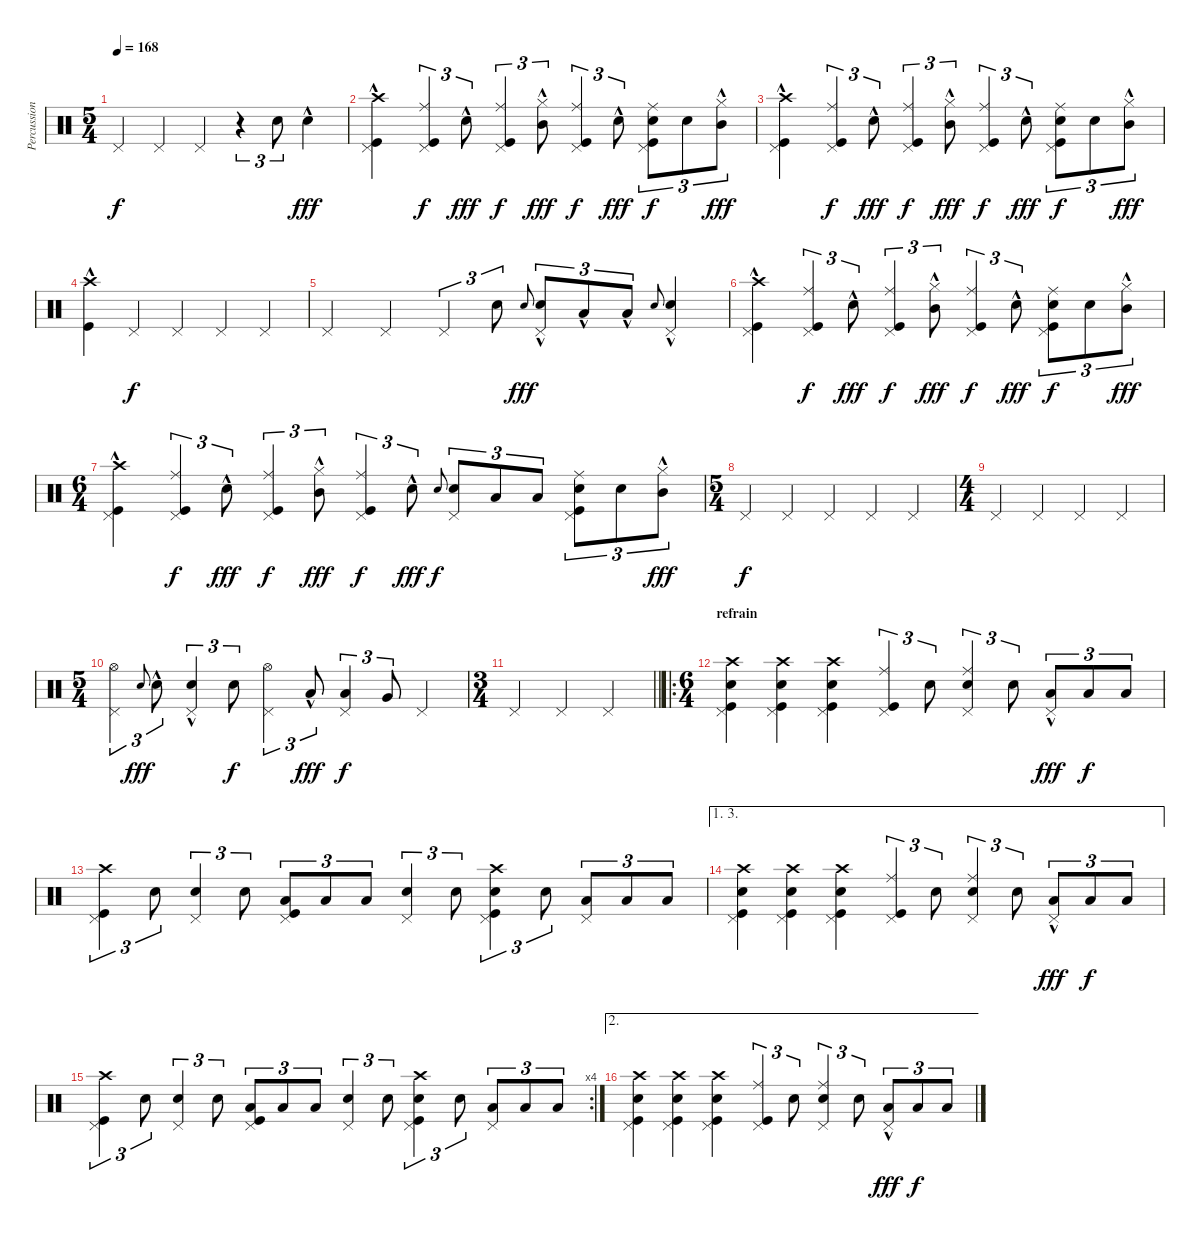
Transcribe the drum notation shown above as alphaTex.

\track ("Percussions" "Percussion") {instrument percussion}
\staff {score}
\articulation defaults
\ts (5 4)
\tempo 168
\clef neutral
\ks c "Pedal Hi-Hat (hit)".4{dy f} "Pedal Hi-Hat (hit)".4 "Pedal Hi-Hat (hit)".4
r.4{tu (3 2)} "Snare (hit) 2".8{tu (3 2)} "Snare (hit) 2"{hac}.4{dy fff} |
("Kick (hit)" "Crash high (hit)"{hac} "Pedal Hi-Hat (hit)").4 ("Kick (hit)" "Ride (middle)" "Pedal Hi-Hat (hit)").4{tu (3 2) dy f} "Snare (hit) 2"{hac}.8{tu (3 2) dy fff} ("Kick (hit)" "Ride (middle)" "Pedal Hi-Hat (hit)").4{tu (3 2) dy f} ("Hi-Hat (closed)" "Mid Tom (hit)"{hac}).8{tu (3 2) dy fff} ("Kick (hit)" "Ride (middle)" "Pedal Hi-Hat (hit)").4{tu (3 2) dy f} "Snare (hit) 2"{hac}.8{tu (3 2) dy fff} ("Kick (hit)" "Ride (middle)" "Pedal Hi-Hat (hit)" "Snare (hit) 2").8{tu (3 2) dy f} "Snare (hit) 2".8{tu (3 2)} ("Hi-Hat (closed)" "Mid Tom (hit)"{hac}).8{tu (3 2) dy fff} |
("Kick (hit)" "Crash high (hit)"{hac} "Pedal Hi-Hat (hit)").4 ("Kick (hit)" "Ride (middle)" "Pedal Hi-Hat (hit)").4{tu (3 2) dy f} "Snare (hit) 2"{hac}.8{tu (3 2) dy fff} ("Kick (hit)" "Ride (middle)" "Pedal Hi-Hat (hit)").4{tu (3 2) dy f} ("Hi-Hat (closed)" "Mid Tom (hit)"{hac}).8{tu (3 2) dy fff} ("Kick (hit)" "Ride (middle)" "Pedal Hi-Hat (hit)").4{tu (3 2) dy f} "Snare (hit) 2"{hac}.8{tu (3 2) dy fff} ("Kick (hit)" "Ride (middle)" "Pedal Hi-Hat (hit)" "Snare (hit) 2").8{tu (3 2) dy f} "Snare (hit) 2".8{tu (3 2)} ("Hi-Hat (closed)" "Mid Tom (hit)"{hac}).8{tu (3 2) dy fff} |
("Kick (hit)"{hac} "Crash high (hit)"{hac}).4 "Pedal Hi-Hat (hit)".4{dy f} "Pedal Hi-Hat (hit)".4 "Pedal Hi-Hat (hit)".4 "Pedal Hi-Hat (hit)".4 |
"Pedal Hi-Hat (hit)".4 "Pedal Hi-Hat (hit)".4 "Pedal Hi-Hat (hit)".4{tu (3 2)} "Snare (hit) 2".8{tu (3 2)} "Snare (hit) 2".8{gr onbeat dy fff} ("Snare (hit) 2"{hac} "Pedal Hi-Hat (hit)").8{tu (3 2)} "Low Tom (hit)"{hac}.8{tu (3 2)} "Low Tom (hit)"{hac}.8{tu (3 2)} "Snare (hit) 2".8{gr onbeat} ("Pedal Hi-Hat (hit)" "Snare (hit) 2"{hac}).4 |
("Kick (hit)" "Crash high (hit)"{hac} "Pedal Hi-Hat (hit)").4 ("Kick (hit)" "Ride (middle)" "Pedal Hi-Hat (hit)").4{tu (3 2) dy f} "Snare (hit) 2"{hac}.8{tu (3 2) dy fff} ("Kick (hit)" "Ride (middle)" "Pedal Hi-Hat (hit)").4{tu (3 2) dy f} ("Hi-Hat (closed)" "Mid Tom (hit)"{hac}).8{tu (3 2) dy fff} ("Kick (hit)" "Ride (middle)" "Pedal Hi-Hat (hit)").4{tu (3 2) dy f} "Snare (hit) 2"{hac}.8{tu (3 2) dy fff} ("Kick (hit)" "Ride (middle)" "Pedal Hi-Hat (hit)" "Snare (hit) 2").8{tu (3 2) dy f} "Snare (hit) 2".8{tu (3 2)} ("Hi-Hat (closed)" "Mid Tom (hit)"{hac}).8{tu (3 2) dy fff} |
\ts (6 4)
("Kick (hit)" "Crash high (hit)"{hac} "Pedal Hi-Hat (hit)").4 ("Kick (hit)" "Ride (middle)" "Pedal Hi-Hat (hit)").4{tu (3 2) dy f} "Snare (hit) 2"{hac}.8{tu (3 2) dy fff} ("Kick (hit)" "Ride (middle)" "Pedal Hi-Hat (hit)").4{tu (3 2) dy f} ("Hi-Hat (closed)" "Mid Tom (hit)"{hac}).8{tu (3 2) dy fff} ("Kick (hit)" "Ride (middle)" "Pedal Hi-Hat (hit)").4{tu (3 2) dy f} "Snare (hit) 2"{hac}.8{tu (3 2) dy fff} "Snare (hit) 2".8{gr onbeat dy f beam split} ("Snare (hit) 2" "Pedal Hi-Hat (hit)").8{tu (3 2) beam merge} "Low Tom (hit)".8{tu (3 2) beam merge} "Low Tom (hit)".8{tu (3 2) beam split} ("Kick (hit)" "Ride (middle)" "Pedal Hi-Hat (hit)" "Snare (hit) 2").8{tu (3 2) beam merge} "Snare (hit) 2".8{tu (3 2) beam merge} ("Hi-Hat (closed)" "Mid Tom (hit)"{hac}).8{tu (3 2) dy fff} |
\ts (5 4)
"Pedal Hi-Hat (hit)".4{dy f} "Pedal Hi-Hat (hit)".4 "Pedal Hi-Hat (hit)".4 "Pedal Hi-Hat (hit)".4 "Pedal Hi-Hat (hit)".4 |
\ts (4 4)
"Pedal Hi-Hat (hit)".4 "Pedal Hi-Hat (hit)".4 "Pedal Hi-Hat (hit)".4 "Pedal Hi-Hat (hit)".4 |
\ts (5 4)
("Hi-Hat (open)" "Pedal Hi-Hat (hit)").4{tu (3 2)} "Snare (hit) 2".8{gr onbeat dy fff} "Snare (hit) 2"{hac}.8{tu (3 2)} ("Snare (hit) 2"{hac} "Pedal Hi-Hat (hit)").4{tu (3 2)} "Snare (hit) 2".8{tu (3 2) dy f} ("Hi-Hat (open)" "Pedal Hi-Hat (hit)").4{tu (3 2)} "Low Tom (hit)"{hac}.8{tu (3 2) dy fff} ("Low Tom (hit)" "Pedal Hi-Hat (hit)").4{tu (3 2) dy f} "Very Low Tom (hit)".8{tu (3 2)} "Pedal Hi-Hat (hit)".4 |
\ts (3 4)
\barLineRight lightlight "Pedal Hi-Hat (hit)".4 "Pedal Hi-Hat (hit)".4 "Pedal Hi-Hat (hit)".4
|
\ro
\ts (6 4)
\section ("" "refrain")
("Kick (hit)" "Crash high (hit)" "Snare (hit) 2" "Pedal Hi-Hat (hit)").4 ("Kick (hit)" "Crash high (hit)" "Snare (hit) 2" "Pedal Hi-Hat (hit)").4 ("Kick (hit)" "Crash high (hit)" "Snare (hit) 2" "Pedal Hi-Hat (hit)").4 ("Kick (hit)" "Ride (middle)" "Pedal Hi-Hat (hit)").4{tu (3 2)} "Snare (hit) 2".8{tu (3 2)} ("Snare (hit) 2" "Ride (middle)" "Pedal Hi-Hat (hit)").4{tu (3 2)} "Snare (hit) 2".8{tu (3 2) beam split} ("Low Tom (hit)" "Pedal Hi-Hat (hit)"{hac}).8{tu (3 2) dy fff} "Low Tom (hit)".8{tu (3 2) dy f} "Low Tom (hit)".8{tu (3 2)} |
("Kick (hit)" "Crash high (hit)" "Pedal Hi-Hat (hit)").4{tu (3 2)} "Snare (hit) 2".8{tu (3 2)} ("Snare (hit) 2" "Pedal Hi-Hat (hit)").4{tu (3 2)} "Snare (hit) 2".8{tu (3 2) beam split} ("Low Tom (hit)" "Kick (hit)" "Pedal Hi-Hat (hit)").8{tu (3 2)} "Low Tom (hit)".8{tu (3 2)} "Low Tom (hit)".8{tu (3 2)} ("Snare (hit) 2" "Pedal Hi-Hat (hit)").4{tu (3 2)} "Snare (hit) 2".8{tu (3 2)} ("Kick (hit)" "Crash high (hit)" "Snare (hit) 2" "Pedal Hi-Hat (hit)").4{tu (3 2)} "Snare (hit) 2".8{tu (3 2) beam split} ("Low Tom (hit)" "Pedal Hi-Hat (hit)").8{tu (3 2)} "Low Tom (hit)".8{tu (3 2)} "Low Tom (hit)".8{tu (3 2)} |
\ae (1 3)
("Kick (hit)" "Crash high (hit)" "Snare (hit) 2" "Pedal Hi-Hat (hit)").4 ("Kick (hit)" "Crash high (hit)" "Snare (hit) 2" "Pedal Hi-Hat (hit)").4 ("Kick (hit)" "Crash high (hit)" "Snare (hit) 2" "Pedal Hi-Hat (hit)").4 ("Kick (hit)" "Ride (middle)" "Pedal Hi-Hat (hit)").4{tu (3 2)} "Snare (hit) 2".8{tu (3 2)} ("Snare (hit) 2" "Ride (middle)" "Pedal Hi-Hat (hit)").4{tu (3 2)} "Snare (hit) 2".8{tu (3 2) beam split} ("Low Tom (hit)" "Pedal Hi-Hat (hit)"{hac}).8{tu (3 2) dy fff} "Low Tom (hit)".8{tu (3 2) dy f} "Low Tom (hit)".8{tu (3 2)} |
\rc 4
("Kick (hit)" "Crash high (hit)" "Pedal Hi-Hat (hit)").4{tu (3 2)} "Snare (hit) 2".8{tu (3 2)} ("Snare (hit) 2" "Pedal Hi-Hat (hit)").4{tu (3 2)} "Snare (hit) 2".8{tu (3 2) beam split} ("Low Tom (hit)" "Kick (hit)" "Pedal Hi-Hat (hit)").8{tu (3 2)} "Low Tom (hit)".8{tu (3 2)} "Low Tom (hit)".8{tu (3 2)} ("Snare (hit) 2" "Pedal Hi-Hat (hit)").4{tu (3 2)} "Snare (hit) 2".8{tu (3 2)} ("Kick (hit)" "Crash high (hit)" "Snare (hit) 2" "Pedal Hi-Hat (hit)").4{tu (3 2)} "Snare (hit) 2".8{tu (3 2) beam split} ("Low Tom (hit)" "Pedal Hi-Hat (hit)").8{tu (3 2)} "Low Tom (hit)".8{tu (3 2)} "Low Tom (hit)".8{tu (3 2)} |
\ae 2
("Kick (hit)" "Crash high (hit)" "Snare (hit) 2" "Pedal Hi-Hat (hit)").4 ("Kick (hit)" "Crash high (hit)" "Snare (hit) 2" "Pedal Hi-Hat (hit)").4 ("Kick (hit)" "Crash high (hit)" "Snare (hit) 2" "Pedal Hi-Hat (hit)").4 ("Kick (hit)" "Ride (middle)" "Pedal Hi-Hat (hit)").4{tu (3 2)} "Snare (hit) 2".8{tu (3 2)} ("Snare (hit) 2" "Ride (middle)" "Pedal Hi-Hat (hit)").4{tu (3 2)} "Snare (hit) 2".8{tu (3 2) beam split} ("Low Tom (hit)" "Pedal Hi-Hat (hit)"{hac}).8{tu (3 2) dy fff} "Low Tom (hit)".8{tu (3 2) dy f} "Low Tom (hit)".8{tu (3 2)}
